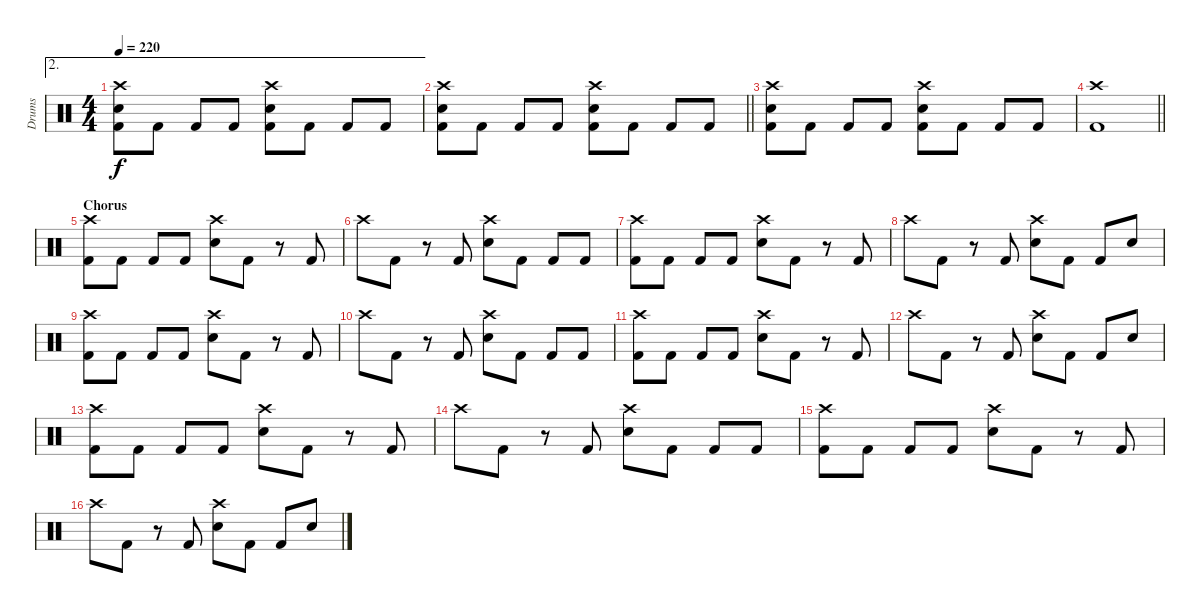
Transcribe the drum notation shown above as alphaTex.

\track ("Drums" "Drums") {instrument percussion}
\staff {score}
\articulation defaults
\ae 2
\ts (4 4)
\tempo 220
\clef neutral
\ks c
("Kick (hit) 2" "Electric Snare (hit)" "Crash high (hit)").8{dy f} "Kick (hit) 2".8 "Kick (hit) 2".8 "Kick (hit) 2".8 ("Kick (hit) 2" "Electric Snare (hit)" "Crash high (hit)").8 "Kick (hit) 2".8 "Kick (hit) 2".8 "Kick (hit) 2".8 |
\barLineRight lightlight
("Kick (hit) 2" "Electric Snare (hit)" "Crash high (hit)").8 "Kick (hit) 2".8 "Kick (hit) 2".8 "Kick (hit) 2".8 ("Kick (hit) 2" "Electric Snare (hit)" "Crash high (hit)").8 "Kick (hit) 2".8 "Kick (hit) 2".8 "Kick (hit) 2".8 |
("Kick (hit) 2" "Electric Snare (hit)" "Crash high (hit)").8 "Kick (hit) 2".8 "Kick (hit) 2".8 "Kick (hit) 2".8 ("Kick (hit) 2" "Electric Snare (hit)" "Crash high (hit)").8 "Kick (hit) 2".8 "Kick (hit) 2".8 "Kick (hit) 2".8 |
\barLineRight lightlight
("Kick (hit) 2" "Crash high (hit)").1 |
\section ("" "Chorus")
("Kick (hit) 2" "Crash high (hit)").8 "Kick (hit) 2".8 "Kick (hit) 2".8 "Kick (hit) 2".8 ("Electric Snare (hit)" "Crash high (hit)").8 "Kick (hit) 2".8 r.8 "Kick (hit) 2".8 |
"Crash high (hit)".8 "Kick (hit) 2".8 r.8 "Kick (hit) 2".8 ("Electric Snare (hit)" "Crash high (hit)").8 "Kick (hit) 2".8 "Kick (hit) 2".8 "Kick (hit) 2".8 |
("Kick (hit) 2" "Crash high (hit)").8 "Kick (hit) 2".8 "Kick (hit) 2".8 "Kick (hit) 2".8 ("Electric Snare (hit)" "Crash high (hit)").8 "Kick (hit) 2".8 r.8 "Kick (hit) 2".8 |
"Crash high (hit)".8 "Kick (hit) 2".8 r.8 "Kick (hit) 2".8 ("Electric Snare (hit)" "Crash high (hit)").8 "Kick (hit) 2".8 "Kick (hit) 2".8 "Electric Snare (hit)".8 |
("Kick (hit) 2" "Crash high (hit)").8 "Kick (hit) 2".8 "Kick (hit) 2".8 "Kick (hit) 2".8 ("Electric Snare (hit)" "Crash high (hit)").8 "Kick (hit) 2".8 r.8 "Kick (hit) 2".8 |
"Crash high (hit)".8 "Kick (hit) 2".8 r.8 "Kick (hit) 2".8 ("Electric Snare (hit)" "Crash high (hit)").8 "Kick (hit) 2".8 "Kick (hit) 2".8 "Kick (hit) 2".8 |
("Kick (hit) 2" "Crash high (hit)").8 "Kick (hit) 2".8 "Kick (hit) 2".8 "Kick (hit) 2".8 ("Electric Snare (hit)" "Crash high (hit)").8 "Kick (hit) 2".8 r.8 "Kick (hit) 2".8 |
"Crash high (hit)".8 "Kick (hit) 2".8 r.8 "Kick (hit) 2".8 ("Electric Snare (hit)" "Crash high (hit)").8 "Kick (hit) 2".8 "Kick (hit) 2".8 "Electric Snare (hit)".8 |
("Kick (hit) 2" "Crash high (hit)").8 "Kick (hit) 2".8 "Kick (hit) 2".8 "Kick (hit) 2".8 ("Electric Snare (hit)" "Crash high (hit)").8 "Kick (hit) 2".8 r.8 "Kick (hit) 2".8 |
"Crash high (hit)".8 "Kick (hit) 2".8 r.8 "Kick (hit) 2".8 ("Electric Snare (hit)" "Crash high (hit)").8 "Kick (hit) 2".8 "Kick (hit) 2".8 "Kick (hit) 2".8 |
("Kick (hit) 2" "Crash high (hit)").8 "Kick (hit) 2".8 "Kick (hit) 2".8 "Kick (hit) 2".8 ("Electric Snare (hit)" "Crash high (hit)").8 "Kick (hit) 2".8 r.8 "Kick (hit) 2".8 |
"Crash high (hit)".8 "Kick (hit) 2".8 r.8 "Kick (hit) 2".8 ("Electric Snare (hit)" "Crash high (hit)").8 "Kick (hit) 2".8 "Kick (hit) 2".8 "Electric Snare (hit)".8
